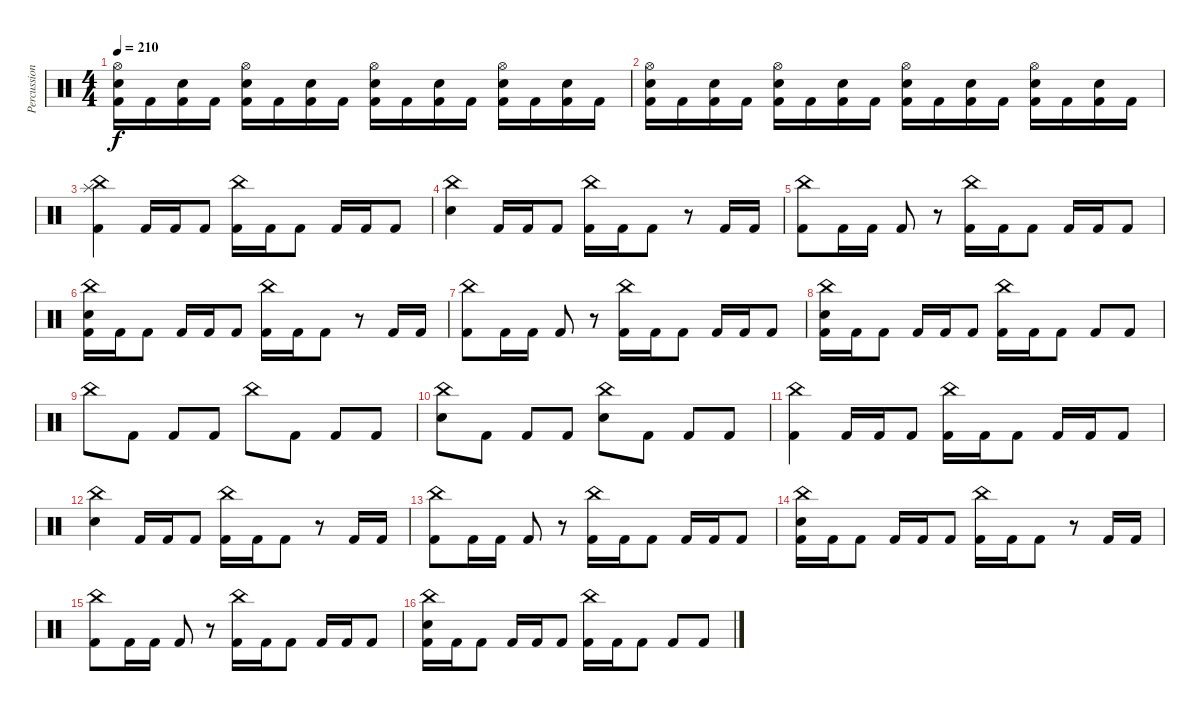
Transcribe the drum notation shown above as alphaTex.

\track ("Percussion" "Percussion") {instrument percussion}
\staff {score}
\articulation defaults
\ts (4 4)
\tempo 210
\clef neutral
\ks c
("Hi-Hat (open)" "Electric Snare (hit)" "Kick (hit) 2").16{dy f} "Kick (hit) 2".16 ("Electric Snare (hit)" "Kick (hit) 2").16 "Kick (hit) 2".16 ("Hi-Hat (open)" "Electric Snare (hit)" "Kick (hit) 2").16 "Kick (hit) 2".16 ("Electric Snare (hit)" "Kick (hit) 2").16 "Kick (hit) 2".16 ("Hi-Hat (open)" "Electric Snare (hit)" "Kick (hit) 2").16 "Kick (hit) 2".16 ("Electric Snare (hit)" "Kick (hit) 2").16 "Kick (hit) 2".16 ("Hi-Hat (open)" "Electric Snare (hit)" "Kick (hit) 2").16 "Kick (hit) 2".16 ("Electric Snare (hit)" "Kick (hit) 2").16 "Kick (hit) 2".16 |
("Hi-Hat (open)" "Electric Snare (hit)" "Kick (hit) 2").16 "Kick (hit) 2".16 ("Electric Snare (hit)" "Kick (hit) 2").16 "Kick (hit) 2".16 ("Hi-Hat (open)" "Electric Snare (hit)" "Kick (hit) 2").16 "Kick (hit) 2".16 ("Electric Snare (hit)" "Kick (hit) 2").16 "Kick (hit) 2".16 ("Hi-Hat (open)" "Electric Snare (hit)" "Kick (hit) 2").16 "Kick (hit) 2".16 ("Electric Snare (hit)" "Kick (hit) 2").16 "Kick (hit) 2".16 ("Hi-Hat (open)" "Electric Snare (hit)" "Kick (hit) 2").16 "Kick (hit) 2".16 ("Electric Snare (hit)" "Kick (hit) 2").16 "Kick (hit) 2".16 |
("China (hit)" "Splash (hit)" "Kick (hit) 2").4 "Kick (hit) 2".16 "Kick (hit) 2".16 "Kick (hit) 2".8 ("China (hit)" "Kick (hit) 2").16 "Kick (hit) 2".16 "Kick (hit) 2".8 "Kick (hit) 2".16 "Kick (hit) 2".16 "Kick (hit) 2".8 |
("China (hit)" "Electric Snare (hit)").4 "Kick (hit) 2".16 "Kick (hit) 2".16 "Kick (hit) 2".8 ("China (hit)" "Kick (hit) 2").16 "Kick (hit) 2".16 "Kick (hit) 2".8 r.8 "Kick (hit) 2".16 "Kick (hit) 2".16 |
("China (hit)" "Kick (hit) 2").8 "Kick (hit) 2".16 "Kick (hit) 2".16 "Kick (hit) 2".8 r.8 ("China (hit)" "Kick (hit) 2").16 "Kick (hit) 2".16 "Kick (hit) 2".8 "Kick (hit) 2".16 "Kick (hit) 2".16 "Kick (hit) 2".8 |
("China (hit)" "Electric Snare (hit)" "Kick (hit) 2").16 "Kick (hit) 2".16 "Kick (hit) 2".8 "Kick (hit) 2".16 "Kick (hit) 2".16 "Kick (hit) 2".8 ("China (hit)" "Kick (hit) 2").16 "Kick (hit) 2".16 "Kick (hit) 2".8 r.8 "Kick (hit) 2".16 "Kick (hit) 2".16 |
("China (hit)" "Kick (hit) 2").8 "Kick (hit) 2".16 "Kick (hit) 2".16 "Kick (hit) 2".8 r.8 ("China (hit)" "Kick (hit) 2").16 "Kick (hit) 2".16 "Kick (hit) 2".8 "Kick (hit) 2".16 "Kick (hit) 2".16 "Kick (hit) 2".8 |
("China (hit)" "Electric Snare (hit)" "Kick (hit) 2").16 "Kick (hit) 2".16 "Kick (hit) 2".8 "Kick (hit) 2".16 "Kick (hit) 2".16 "Kick (hit) 2".8 ("China (hit)" "Kick (hit) 2").16 "Kick (hit) 2".16 "Kick (hit) 2".8 "Kick (hit) 2".8 "Kick (hit) 2".8 |
"China (hit)".8 "Kick (hit) 2".8 "Kick (hit) 2".8 "Kick (hit) 2".8 "China (hit)".8 "Kick (hit) 2".8 "Kick (hit) 2".8 "Kick (hit) 2".8 |
("China (hit)" "Electric Snare (hit)").8 "Kick (hit) 2".8 "Kick (hit) 2".8 "Kick (hit) 2".8 ("China (hit)" "Electric Snare (hit)").8 "Kick (hit) 2".8 "Kick (hit) 2".8 "Kick (hit) 2".8 |
("China (hit)" "Kick (hit) 2").4 "Kick (hit) 2".16 "Kick (hit) 2".16 "Kick (hit) 2".8 ("China (hit)" "Kick (hit) 2").16 "Kick (hit) 2".16 "Kick (hit) 2".8 "Kick (hit) 2".16 "Kick (hit) 2".16 "Kick (hit) 2".8 |
("China (hit)" "Electric Snare (hit)").4 "Kick (hit) 2".16 "Kick (hit) 2".16 "Kick (hit) 2".8 ("China (hit)" "Kick (hit) 2").16 "Kick (hit) 2".16 "Kick (hit) 2".8 r.8 "Kick (hit) 2".16 "Kick (hit) 2".16 |
("China (hit)" "Kick (hit) 2").8 "Kick (hit) 2".16 "Kick (hit) 2".16 "Kick (hit) 2".8 r.8 ("China (hit)" "Kick (hit) 2").16 "Kick (hit) 2".16 "Kick (hit) 2".8 "Kick (hit) 2".16 "Kick (hit) 2".16 "Kick (hit) 2".8 |
("China (hit)" "Electric Snare (hit)" "Kick (hit) 2").16 "Kick (hit) 2".16 "Kick (hit) 2".8 "Kick (hit) 2".16 "Kick (hit) 2".16 "Kick (hit) 2".8 ("China (hit)" "Kick (hit) 2").16 "Kick (hit) 2".16 "Kick (hit) 2".8 r.8 "Kick (hit) 2".16 "Kick (hit) 2".16 |
("China (hit)" "Kick (hit) 2").8 "Kick (hit) 2".16 "Kick (hit) 2".16 "Kick (hit) 2".8 r.8 ("China (hit)" "Kick (hit) 2").16 "Kick (hit) 2".16 "Kick (hit) 2".8 "Kick (hit) 2".16 "Kick (hit) 2".16 "Kick (hit) 2".8 |
("China (hit)" "Electric Snare (hit)" "Kick (hit) 2").16 "Kick (hit) 2".16 "Kick (hit) 2".8 "Kick (hit) 2".16 "Kick (hit) 2".16 "Kick (hit) 2".8 ("China (hit)" "Kick (hit) 2").16 "Kick (hit) 2".16 "Kick (hit) 2".8 "Kick (hit) 2".8 "Kick (hit) 2".8
